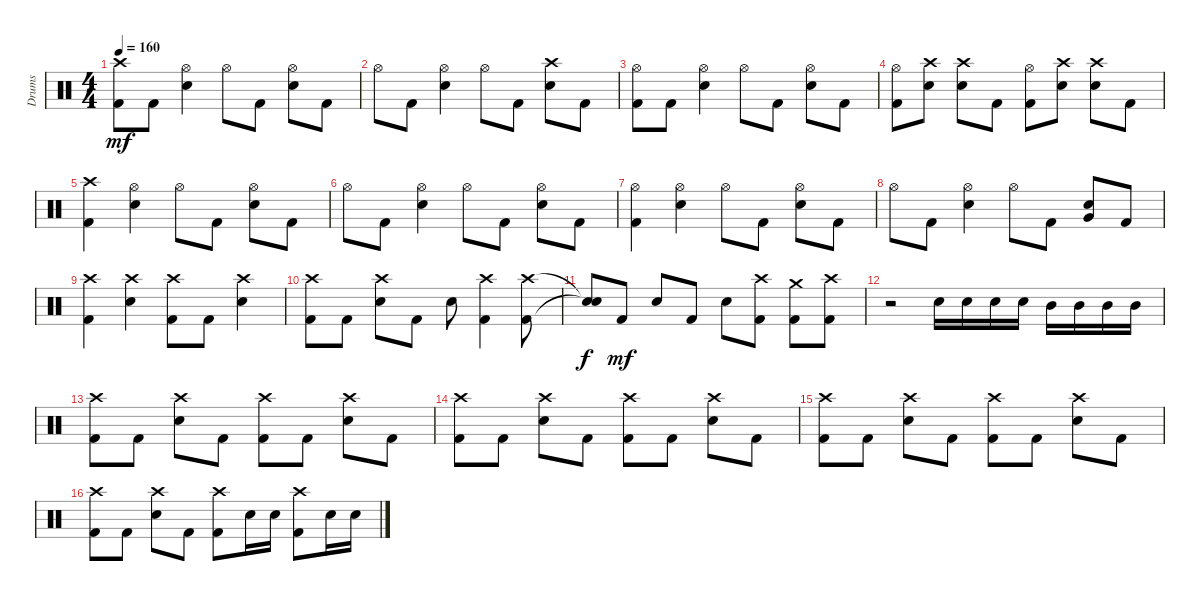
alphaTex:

\track ("Drums" "Drums") {instrument percussion}
\staff {score}
\articulation defaults
\ts (4 4)
\tempo 160
\clef neutral
\ks c
("Crash high (hit)" "Kick (hit) 2").8{dy mf} "Kick (hit) 2".8 ("Hi-Hat (open)" "Electric Snare (hit)").4 "Hi-Hat (open)".8 "Kick (hit) 2".8 ("Hi-Hat (open)" "Electric Snare (hit)").8 "Kick (hit) 2".8 |
"Hi-Hat (open)".8 "Kick (hit) 2".8 ("Hi-Hat (open)" "Electric Snare (hit)").4 "Hi-Hat (open)".8 "Kick (hit) 2".8 ("Crash high (hit)" "Electric Snare (hit)").8 "Kick (hit) 2".8 |
("Hi-Hat (open)" "Kick (hit) 2").8 "Kick (hit) 2".8 ("Hi-Hat (open)" "Electric Snare (hit)").4 "Hi-Hat (open)".8 "Kick (hit) 2".8 ("Hi-Hat (open)" "Electric Snare (hit)").8 "Kick (hit) 2".8 |
("Hi-Hat (open)" "Kick (hit) 2").8 ("Crash high (hit)" "Electric Snare (hit)").8 ("Crash high (hit)" "Electric Snare (hit)").8 "Kick (hit) 2".8 ("Hi-Hat (open)" "Kick (hit) 2").8 ("Crash high (hit)" "Electric Snare (hit)").8 ("Crash high (hit)" "Electric Snare (hit)").8 "Kick (hit) 2".8 |
("Crash high (hit)" "Kick (hit) 2").4 ("Hi-Hat (open)" "Electric Snare (hit)").4 "Hi-Hat (open)".8 "Kick (hit) 2".8 ("Hi-Hat (open)" "Electric Snare (hit)").8 "Kick (hit) 2".8 |
"Hi-Hat (open)".8 "Kick (hit) 2".8 ("Hi-Hat (open)" "Electric Snare (hit)").4 "Hi-Hat (open)".8 "Kick (hit) 2".8 ("Hi-Hat (open)" "Electric Snare (hit)").8 "Kick (hit) 2".8 |
("Hi-Hat (open)" "Kick (hit) 2").4 ("Hi-Hat (open)" "Electric Snare (hit)").4 "Hi-Hat (open)".8 "Kick (hit) 2".8 ("Hi-Hat (open)" "Electric Snare (hit)").8 "Kick (hit) 2".8 |
"Hi-Hat (open)".8 "Kick (hit) 2".8 ("Hi-Hat (open)" "Electric Snare (hit)").4 "Hi-Hat (open)".8 "Kick (hit) 2".8 ("Very Low Tom (hit)" "Electric Snare (hit)").8 "Kick (hit) 2".8 |
("Crash high (hit)" "Kick (hit) 2").4 ("Crash high (hit)" "Electric Snare (hit)").4 ("Crash high (hit)" "Kick (hit) 2").8 "Kick (hit) 2".8 ("Crash high (hit)" "Electric Snare (hit)").4 |
("Crash high (hit)" "Kick (hit) 2").8 "Kick (hit) 2".8 ("Crash high (hit)" "Electric Snare (hit)").8 "Kick (hit) 2".8 "Electric Snare (hit)".8 ("Crash high (hit)" "Kick (hit) 2").4 ("Crash high (hit)" "Kick (hit) 2").8 |
("Snare (hit)"{t} "Snare (hit)"{t}).8{dy f} "Kick (hit) 2".8{dy mf} "Electric Snare (hit)".8 "Kick (hit) 2".8 "Electric Snare (hit)".8 ("Crash high (hit)" "Kick (hit) 2").8 ("Crash medium (hit)" "Kick (hit) 2").8 ("Crash high (hit)" "Kick (hit) 2").8 |
r.2 "Electric Snare (hit)".16 "Electric Snare (hit)".16 "Electric Snare (hit)".16 "Electric Snare (hit)".16 "Mid Tom (hit)".16 "Mid Tom (hit)".16 "Mid Tom (hit)".16 "Mid Tom (hit)".16 |
("Crash high (hit)" "Kick (hit) 2").8 "Kick (hit) 2".8 ("Crash high (hit)" "Electric Snare (hit)").8 "Kick (hit) 2".8 ("Crash high (hit)" "Kick (hit) 2").8 "Kick (hit) 2".8 ("Crash high (hit)" "Electric Snare (hit)").8 "Kick (hit) 2".8 |
("Crash high (hit)" "Kick (hit) 2").8 "Kick (hit) 2".8 ("Crash high (hit)" "Electric Snare (hit)").8 "Kick (hit) 2".8 ("Crash high (hit)" "Kick (hit) 2").8 "Kick (hit) 2".8 ("Crash high (hit)" "Electric Snare (hit)").8 "Kick (hit) 2".8 |
("Crash high (hit)" "Kick (hit) 2").8 "Kick (hit) 2".8 ("Crash high (hit)" "Electric Snare (hit)").8 "Kick (hit) 2".8 ("Crash high (hit)" "Kick (hit) 2").8 "Kick (hit) 2".8 ("Crash high (hit)" "Electric Snare (hit)").8 "Kick (hit) 2".8 |
("Crash high (hit)" "Kick (hit) 2").8 "Kick (hit) 2".8 ("Crash high (hit)" "Electric Snare (hit)").8 "Kick (hit) 2".8 ("Crash high (hit)" "Kick (hit) 2").8 "Electric Snare (hit)".16 "Electric Snare (hit)".16 ("Crash high (hit)" "Kick (hit) 2").8 "Electric Snare (hit)".16 "Electric Snare (hit)".16
